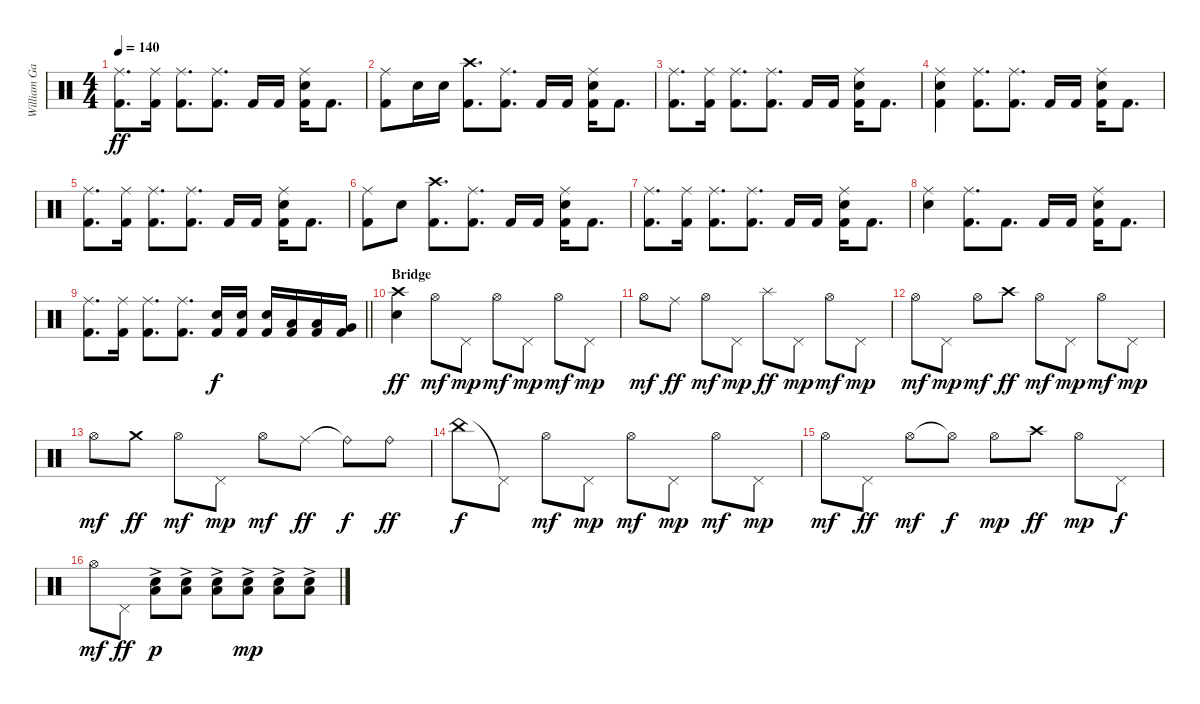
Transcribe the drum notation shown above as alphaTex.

\track ("William Gates (Drums)" "William Ga") {instrument percussion}
\staff {score}
\articulation defaults
\ts (4 4)
\tempo 140
\clef neutral
\ks c
("Ride (middle)" "Kick (hit) 2").8{d dy ff} ("Ride (middle)" "Kick (hit) 2").16 ("Ride (middle)" "Kick (hit) 2").8{d} ("Ride (middle)" "Kick (hit) 2").8{d} "Kick (hit) 2".16 "Kick (hit) 2".16 ("Ride (middle)" "Snare (hit) 2" "Kick (hit) 2").16 "Kick (hit) 2".8{d} |
("Ride (middle)" "Kick (hit) 2").8 "Snare (hit) 2".16 "Snare (hit) 2".16 ("Crash high (hit)" "Kick (hit) 2").8{d} ("Ride (middle)" "Kick (hit) 2").8{d} "Kick (hit) 2".16 "Kick (hit) 2".16 ("Ride (middle)" "Snare (hit) 2" "Kick (hit) 2").16 "Kick (hit) 2".8{d} |
("Ride (middle)" "Kick (hit) 2").8{d} ("Ride (middle)" "Kick (hit) 2").16 ("Ride (middle)" "Kick (hit) 2").8{d} ("Ride (middle)" "Kick (hit) 2").8{d} "Kick (hit) 2".16 "Kick (hit) 2".16 ("Ride (middle)" "Snare (hit) 2" "Kick (hit) 2").16 "Kick (hit) 2".8{d} |
("Ride (middle)" "Snare (hit) 2" "Kick (hit) 2").4 ("Ride (middle)" "Kick (hit) 2").8{d} ("Ride (middle)" "Kick (hit) 2").8{d} "Kick (hit) 2".16 "Kick (hit) 2".16 ("Ride (middle)" "Snare (hit) 2" "Kick (hit) 2").16 "Kick (hit) 2".8{d} |
("Ride (middle)" "Kick (hit) 2").8{d} ("Ride (middle)" "Kick (hit) 2").16 ("Ride (middle)" "Kick (hit) 2").8{d} ("Ride (middle)" "Kick (hit) 2").8{d} "Kick (hit) 2".16 "Kick (hit) 2".16 ("Ride (middle)" "Snare (hit) 2" "Kick (hit) 2").16 "Kick (hit) 2".8{d} |
("Ride (middle)" "Kick (hit) 2").8 "Snare (hit) 2".8 ("Crash high (hit)" "Kick (hit) 2").8{d} ("Ride (middle)" "Kick (hit) 2").8{d} "Kick (hit) 2".16 "Kick (hit) 2".16 ("Ride (middle)" "Snare (hit) 2" "Kick (hit) 2").16 "Kick (hit) 2".8{d} |
("Ride (middle)" "Kick (hit) 2").8{d} ("Ride (middle)" "Kick (hit) 2").16 ("Ride (middle)" "Kick (hit) 2").8{d} ("Ride (middle)" "Kick (hit) 2").8{d} "Kick (hit) 2".16 "Kick (hit) 2".16 ("Ride (middle)" "Snare (hit) 2" "Kick (hit) 2").16 "Kick (hit) 2".8{d} |
("Ride (middle)" "Snare (hit) 2").4 ("Ride (middle)" "Kick (hit) 2").8{d} "Kick (hit) 2".8{d} "Kick (hit) 2".16 "Kick (hit) 2".16 ("Ride (middle)" "Snare (hit) 2" "Kick (hit) 2").16 "Kick (hit) 2".8{d} |
\barLineRight lightlight
("Ride (middle)" "Kick (hit) 2").8{d} ("Ride (middle)" "Kick (hit) 2").16 ("Ride (middle)" "Kick (hit) 2").8{d} ("Ride (middle)" "Kick (hit) 2").8{d} ("Snare (hit) 2" "Kick (hit) 2").16{dy f} ("Snare (hit) 2" "Kick (hit) 2").16 ("Snare (hit) 2" "Kick (hit) 2").16 ("Low Tom (hit)" "Kick (hit) 2").16 ("Low Tom (hit)" "Kick (hit) 2").16 ("Very Low Tom (hit)" "Kick (hit) 2").16 |
\section ("" "Bridge")
("Crash high (hit)" "Snare (hit) 2").4{dy ff} "Hi-Hat (open)".8{dy mf} "Pedal Hi-Hat (hit)".8{dy mp} "Hi-Hat (open)".8{dy mf} "Pedal Hi-Hat (hit)".8{dy mp} "Hi-Hat (open)".8{dy mf} "Pedal Hi-Hat (hit)".8{dy mp} |
"Hi-Hat (open)".8{dy mf} "Ride (middle)".8{dy ff} "Hi-Hat (open)".8{dy mf} "Pedal Hi-Hat (hit)".8{dy mp} "Splash (hit)".8{dy ff} "Pedal Hi-Hat (hit)".8{dy mp} "Hi-Hat (open)".8{dy mf} "Pedal Hi-Hat (hit)".8{dy mp} |
"Hi-Hat (open)".8{dy mf} "Pedal Hi-Hat (hit)".8{dy mp} "Hi-Hat (open)".8{dy mf} "Crash high (hit)".8{dy ff} "Hi-Hat (open)".8{dy mf} "Pedal Hi-Hat (hit)".8{dy mp} "Hi-Hat (open)".8{dy mf} "Pedal Hi-Hat (hit)".8{dy mp} |
"Hi-Hat (open)".8{dy mf} "Crash medium (hit)".8{dy ff} "Hi-Hat (open)".8{dy mf} "Pedal Hi-Hat (hit)".8{dy mp} "Hi-Hat (open)".8{dy mf} "Ride (middle)".8{dy ff} "Ride (bell)"{t}.8{dy f} "Ride (bell)".8{dy ff} |
"China (hit)".8{dy f} "Pedal Hi-Hat (hit)"{t}.8 "Hi-Hat (open)".8{dy mf} "Pedal Hi-Hat (hit)".8{dy mp} "Hi-Hat (open)".8{dy mf} "Pedal Hi-Hat (hit)".8{dy mp} "Hi-Hat (open)".8{dy mf} "Pedal Hi-Hat (hit)".8{dy mp} |
"Hi-Hat (open)".8{dy mf} "Pedal Hi-Hat (hit)".8{dy ff} "Hi-Hat (open)".8{dy mf} "Hi-Hat (open)"{t}.8{dy f} "Hi-Hat (open)".8{dy mp} "Crash high (hit)".8{dy ff} "Hi-Hat (open)".8{dy mp} "Pedal Hi-Hat (hit)".8{dy f} |
"Hi-Hat (open)".8{dy mf} "Pedal Hi-Hat (hit)".8{dy ff} ("Low Floor Tom (hit)"{ac} "Snare (hit) 2"{ac}).8{dy p} ("Low Floor Tom (hit)"{ac} "Snare (hit) 2"{ac}).8 ("Low Floor Tom (hit)"{ac} "Snare (hit) 2"{ac}).8 ("Low Floor Tom (hit)"{ac} "Snare (hit) 2"{ac}).8{dy mp} ("Low Floor Tom (hit)"{ac} "Snare (hit) 2"{ac}).8 ("Low Floor Tom (hit)"{ac} "Snare (hit) 2"{ac}).8
